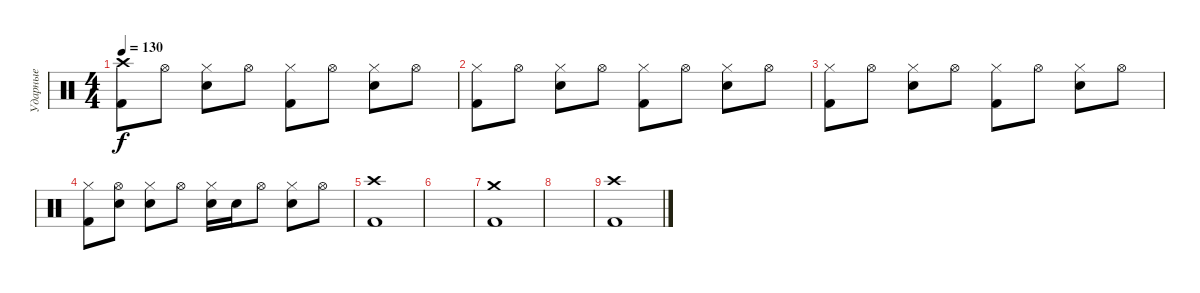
\track ("Ударные" "Ударные") {instrument percussion}
\staff {score}
\articulation defaults
\ts (4 4)
\tempo 130
\clef neutral
\ks c
("Crash high (hit)" "Kick (hit) 2").8{dy f} "Hi-Hat (open)".8 ("Hi-Hat (closed)" "Snare (hit) 2").8 "Hi-Hat (open)".8 ("Hi-Hat (closed)" "Kick (hit) 2").8 "Hi-Hat (open)".8 ("Hi-Hat (closed)" "Snare (hit) 2").8 "Hi-Hat (open)".8 |
("Hi-Hat (closed)" "Kick (hit) 2").8 "Hi-Hat (open)".8 ("Hi-Hat (closed)" "Snare (hit) 2").8 "Hi-Hat (open)".8 ("Hi-Hat (closed)" "Kick (hit) 2").8 "Hi-Hat (open)".8 ("Hi-Hat (closed)" "Snare (hit) 2").8 "Hi-Hat (open)".8 |
("Hi-Hat (closed)" "Kick (hit) 2").8 "Hi-Hat (open)".8 ("Hi-Hat (closed)" "Snare (hit) 2").8 "Hi-Hat (open)".8 ("Hi-Hat (closed)" "Kick (hit) 2").8 "Hi-Hat (open)".8 ("Hi-Hat (closed)" "Snare (hit) 2").8 "Hi-Hat (open)".8 |
("Hi-Hat (closed)" "Kick (hit) 2").8 ("Hi-Hat (open)" "Snare (hit) 2").8 ("Hi-Hat (closed)" "Snare (hit) 2").8 "Hi-Hat (open)".8 ("Hi-Hat (closed)" "Snare (hit) 2").16 "Snare (hit) 2".16 "Hi-Hat (open)".8 ("Hi-Hat (closed)" "Snare (hit) 2").8 "Hi-Hat (open)".8 |
("Crash high (hit)" "Kick (hit) 2").1 |
|
("Crash medium (hit)" "Kick (hit) 2").1 |
|
("Crash high (hit)" "Kick (hit) 2").1
